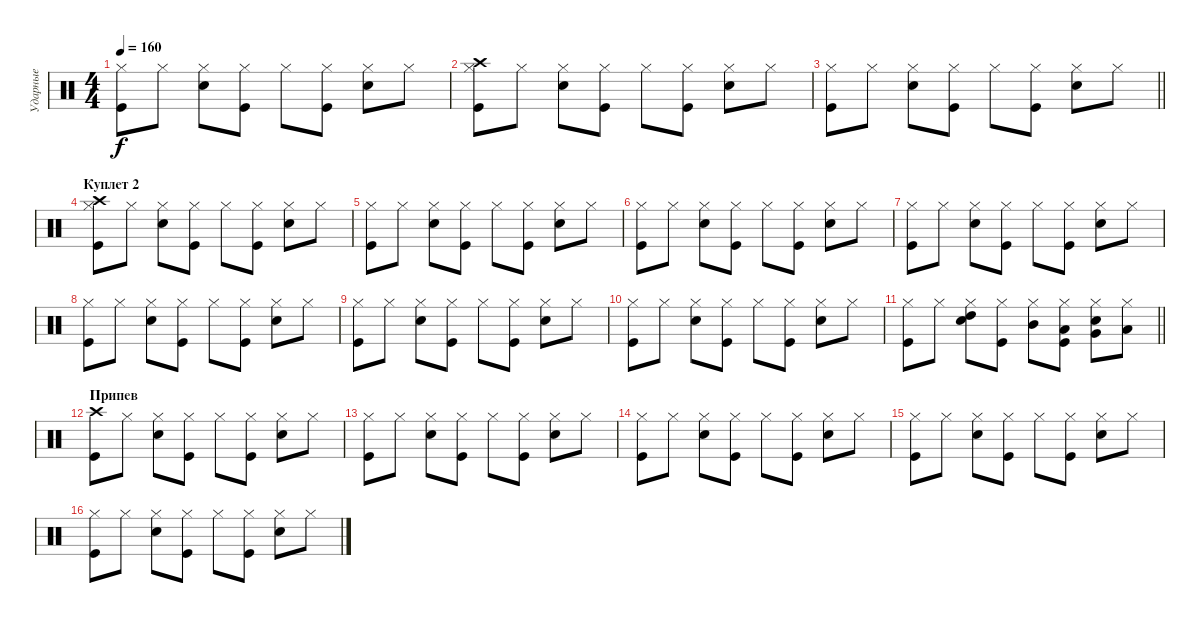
\track ("Ударные" "Ударные") {instrument percussion}
\staff {score}
\articulation defaults
\ts (4 4)
\tempo 160
\clef neutral
\ks c
("Kick (hit)" "Hi-Hat (closed)").8{dy f} "Hi-Hat (closed)".8 ("Snare (hit) 2" "Hi-Hat (closed)").8 ("Kick (hit)" "Hi-Hat (closed)").8 "Hi-Hat (closed)".8 ("Kick (hit)" "Hi-Hat (closed)").8 ("Snare (hit) 2" "Hi-Hat (closed)").8 "Hi-Hat (closed)".8 |
("Kick (hit)" "Crash high (hit)" "Hi-Hat (closed)").8 "Hi-Hat (closed)".8 ("Snare (hit) 2" "Hi-Hat (closed)").8 ("Kick (hit)" "Hi-Hat (closed)").8 "Hi-Hat (closed)".8 ("Kick (hit)" "Hi-Hat (closed)").8 ("Snare (hit) 2" "Hi-Hat (closed)").8 "Hi-Hat (closed)".8 |
\barLineRight lightlight
("Kick (hit)" "Hi-Hat (closed)").8 "Hi-Hat (closed)".8 ("Snare (hit) 2" "Hi-Hat (closed)").8 ("Kick (hit)" "Hi-Hat (closed)").8 "Hi-Hat (closed)".8 ("Kick (hit)" "Hi-Hat (closed)").8 ("Snare (hit) 2" "Hi-Hat (closed)").8 "Hi-Hat (closed)".8 |
\section ("" "Куплет 2")
("Kick (hit)" "Crash high (hit)" "Hi-Hat (closed)").8 "Hi-Hat (closed)".8 ("Snare (hit) 2" "Hi-Hat (closed)").8 ("Kick (hit)" "Hi-Hat (closed)").8 "Hi-Hat (closed)".8 ("Kick (hit)" "Hi-Hat (closed)").8 ("Snare (hit) 2" "Hi-Hat (closed)").8 "Hi-Hat (closed)".8 |
("Kick (hit)" "Hi-Hat (closed)").8 "Hi-Hat (closed)".8 ("Snare (hit) 2" "Hi-Hat (closed)").8 ("Kick (hit)" "Hi-Hat (closed)").8 "Hi-Hat (closed)".8 ("Kick (hit)" "Hi-Hat (closed)").8 ("Snare (hit) 2" "Hi-Hat (closed)").8 "Hi-Hat (closed)".8 |
("Kick (hit)" "Hi-Hat (closed)").8 "Hi-Hat (closed)".8 ("Snare (hit) 2" "Hi-Hat (closed)").8 ("Kick (hit)" "Hi-Hat (closed)").8 "Hi-Hat (closed)".8 ("Kick (hit)" "Hi-Hat (closed)").8 ("Snare (hit) 2" "Hi-Hat (closed)").8 "Hi-Hat (closed)".8 |
("Kick (hit)" "Hi-Hat (closed)").8 "Hi-Hat (closed)".8 ("Snare (hit) 2" "Hi-Hat (closed)").8 ("Kick (hit)" "Hi-Hat (closed)").8 "Hi-Hat (closed)".8 ("Kick (hit)" "Hi-Hat (closed)").8 ("Snare (hit) 2" "Hi-Hat (closed)").8 "Hi-Hat (closed)".8 |
("Kick (hit)" "Hi-Hat (closed)").8 "Hi-Hat (closed)".8 ("Snare (hit) 2" "Hi-Hat (closed)").8 ("Kick (hit)" "Hi-Hat (closed)").8 "Hi-Hat (closed)".8 ("Kick (hit)" "Hi-Hat (closed)").8 ("Snare (hit) 2" "Hi-Hat (closed)").8 "Hi-Hat (closed)".8 |
("Kick (hit)" "Hi-Hat (closed)").8 "Hi-Hat (closed)".8 ("Snare (hit) 2" "Hi-Hat (closed)").8 ("Kick (hit)" "Hi-Hat (closed)").8 "Hi-Hat (closed)".8 ("Kick (hit)" "Hi-Hat (closed)").8 ("Snare (hit) 2" "Hi-Hat (closed)").8 "Hi-Hat (closed)".8 |
("Kick (hit)" "Hi-Hat (closed)").8 "Hi-Hat (closed)".8 ("Snare (hit) 2" "Hi-Hat (closed)").8 ("Kick (hit)" "Hi-Hat (closed)").8 "Hi-Hat (closed)".8 ("Kick (hit)" "Hi-Hat (closed)").8 ("Snare (hit) 2" "Hi-Hat (closed)").8 "Hi-Hat (closed)".8 |
\barLineRight lightlight
("Kick (hit)" "Hi-Hat (closed)").8 "Hi-Hat (closed)".8 ("Snare (hit) 2" "High Tom (hit)" "Hi-Hat (closed)").8 ("Kick (hit)" "Hi-Hat (closed)").8 ("Mid Tom (hit)" "Hi-Hat (closed)").8 ("Kick (hit)" "Low Tom (hit)" "Hi-Hat (closed)").8 ("Snare (hit) 2" "Very Low Tom (hit)" "Hi-Hat (closed)").8 ("Low Floor Tom (hit)" "Hi-Hat (closed)").8 |
\section ("" "Припев")
("Kick (hit)" "Crash high (hit)").8 "Hi-Hat (closed)".8 ("Snare (hit) 2" "Hi-Hat (closed)").8 ("Kick (hit)" "Hi-Hat (closed)").8 "Hi-Hat (closed)".8 ("Kick (hit)" "Hi-Hat (closed)").8 ("Snare (hit) 2" "Hi-Hat (closed)").8 "Hi-Hat (closed)".8 |
("Kick (hit)" "Hi-Hat (closed)").8 "Hi-Hat (closed)".8 ("Snare (hit) 2" "Hi-Hat (closed)").8 ("Kick (hit)" "Hi-Hat (closed)").8 "Hi-Hat (closed)".8 ("Kick (hit)" "Hi-Hat (closed)").8 ("Snare (hit) 2" "Hi-Hat (closed)").8 "Hi-Hat (closed)".8 |
("Kick (hit)" "Hi-Hat (closed)").8 "Hi-Hat (closed)".8 ("Snare (hit) 2" "Hi-Hat (closed)").8 ("Kick (hit)" "Hi-Hat (closed)").8 "Hi-Hat (closed)".8 ("Kick (hit)" "Hi-Hat (closed)").8 ("Snare (hit) 2" "Hi-Hat (closed)").8 "Hi-Hat (closed)".8 |
("Kick (hit)" "Hi-Hat (closed)").8 "Hi-Hat (closed)".8 ("Snare (hit) 2" "Hi-Hat (closed)").8 ("Kick (hit)" "Hi-Hat (closed)").8 "Hi-Hat (closed)".8 ("Kick (hit)" "Hi-Hat (closed)").8 ("Snare (hit) 2" "Hi-Hat (closed)").8 "Hi-Hat (closed)".8 |
("Kick (hit)" "Hi-Hat (closed)").8 "Hi-Hat (closed)".8 ("Snare (hit) 2" "Hi-Hat (closed)").8 ("Kick (hit)" "Hi-Hat (closed)").8 "Hi-Hat (closed)".8 ("Kick (hit)" "Hi-Hat (closed)").8 ("Snare (hit) 2" "Hi-Hat (closed)").8 "Hi-Hat (closed)".8
